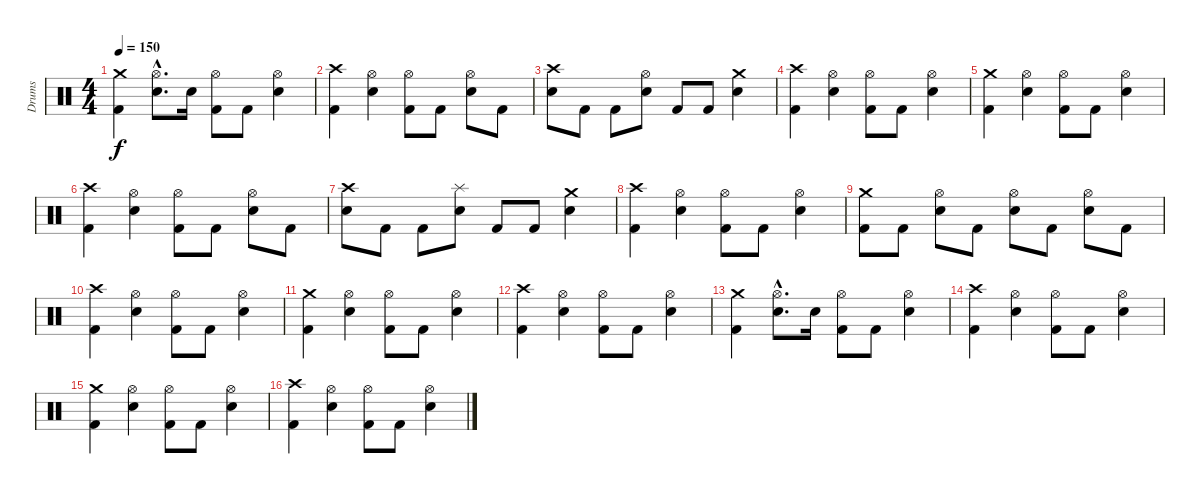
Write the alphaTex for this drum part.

\track ("Drums" "Drums") {instrument percussion}
\staff {score}
\articulation defaults
\ts (4 4)
\tempo 150
\clef neutral
\ks c
("Crash medium (hit)" "Kick (hit) 2").4{dy f} ("Hi-Hat (open)"{hac} "Electric Snare (hit)"{hac}).8{d} "Electric Snare (hit)".16 ("Hi-Hat (open)" "Kick (hit) 2").8 "Kick (hit) 2".8 ("Hi-Hat (open)" "Electric Snare (hit)").4 |
("Crash high (hit)" "Kick (hit) 2").4 ("Hi-Hat (open)" "Electric Snare (hit)").4 ("Hi-Hat (open)" "Kick (hit) 2").8 "Kick (hit) 2".8 ("Hi-Hat (open)" "Electric Snare (hit)").8 "Kick (hit) 2".8 |
("Crash high (hit)" "Electric Snare (hit)").8 "Kick (hit) 2".8 "Kick (hit) 2".8 ("Hi-Hat (open)" "Electric Snare (hit)").8 "Kick (hit) 2".8 "Kick (hit) 2".8 ("Crash medium (hit)" "Electric Snare (hit)").4 |
("Crash high (hit)" "Kick (hit) 2").4 ("Hi-Hat (open)" "Electric Snare (hit)").4 ("Hi-Hat (open)" "Kick (hit) 2").8 "Kick (hit) 2".8 ("Hi-Hat (open)" "Electric Snare (hit)").4 |
("Crash medium (hit)" "Kick (hit) 2").4 ("Hi-Hat (open)" "Electric Snare (hit)").4 ("Hi-Hat (open)" "Kick (hit) 2").8 "Kick (hit) 2".8 ("Hi-Hat (open)" "Electric Snare (hit)").4 |
("Crash high (hit)" "Kick (hit) 2").4 ("Hi-Hat (open)" "Electric Snare (hit)").4 ("Hi-Hat (open)" "Kick (hit) 2").8 "Kick (hit) 2".8 ("Hi-Hat (open)" "Electric Snare (hit)").8 "Kick (hit) 2".8 |
("Crash high (hit)" "Electric Snare (hit)").8 "Kick (hit) 2".8 "Kick (hit) 2".8 ("Splash (hit)" "Electric Snare (hit)").8 "Kick (hit) 2".8 "Kick (hit) 2".8 ("Crash medium (hit)" "Electric Snare (hit)").4 |
("Crash high (hit)" "Kick (hit) 2").4 ("Hi-Hat (open)" "Electric Snare (hit)").4 ("Hi-Hat (open)" "Kick (hit) 2").8 "Kick (hit) 2".8 ("Hi-Hat (open)" "Electric Snare (hit)").4 |
("Crash medium (hit)" "Kick (hit) 2").8 "Kick (hit) 2".8 ("Hi-Hat (open)" "Electric Snare (hit)").8 "Kick (hit) 2".8 ("Hi-Hat (open)" "Electric Snare (hit)").8 "Kick (hit) 2".8 ("Hi-Hat (open)" "Electric Snare (hit)").8 "Kick (hit) 2".8 |
("Crash high (hit)" "Kick (hit) 2").4 ("Hi-Hat (open)" "Electric Snare (hit)").4 ("Hi-Hat (open)" "Kick (hit) 2").8 "Kick (hit) 2".8 ("Hi-Hat (open)" "Electric Snare (hit)").4 |
("Crash medium (hit)" "Kick (hit) 2").4 ("Hi-Hat (open)" "Electric Snare (hit)").4 ("Hi-Hat (open)" "Kick (hit) 2").8 "Kick (hit) 2".8 ("Hi-Hat (open)" "Electric Snare (hit)").4 |
("Crash high (hit)" "Kick (hit) 2").4 ("Hi-Hat (open)" "Electric Snare (hit)").4 ("Hi-Hat (open)" "Kick (hit) 2").8 "Kick (hit) 2".8 ("Hi-Hat (open)" "Electric Snare (hit)").4 |
("Crash medium (hit)" "Kick (hit) 2").4 ("Hi-Hat (open)"{hac} "Electric Snare (hit)"{hac}).8{d} "Electric Snare (hit)".16 ("Hi-Hat (open)" "Kick (hit) 2").8 "Kick (hit) 2".8 ("Hi-Hat (open)" "Electric Snare (hit)").4 |
("Crash high (hit)" "Kick (hit) 2").4 ("Hi-Hat (open)" "Electric Snare (hit)").4 ("Hi-Hat (open)" "Kick (hit) 2").8 "Kick (hit) 2".8 ("Hi-Hat (open)" "Electric Snare (hit)").4 |
("Crash medium (hit)" "Kick (hit) 2").4 ("Hi-Hat (open)" "Electric Snare (hit)").4 ("Hi-Hat (open)" "Kick (hit) 2").8 "Kick (hit) 2".8 ("Hi-Hat (open)" "Electric Snare (hit)").4 |
("Crash high (hit)" "Kick (hit) 2").4 ("Hi-Hat (open)" "Electric Snare (hit)").4 ("Hi-Hat (open)" "Kick (hit) 2").8 "Kick (hit) 2".8 ("Hi-Hat (open)" "Electric Snare (hit)").4
